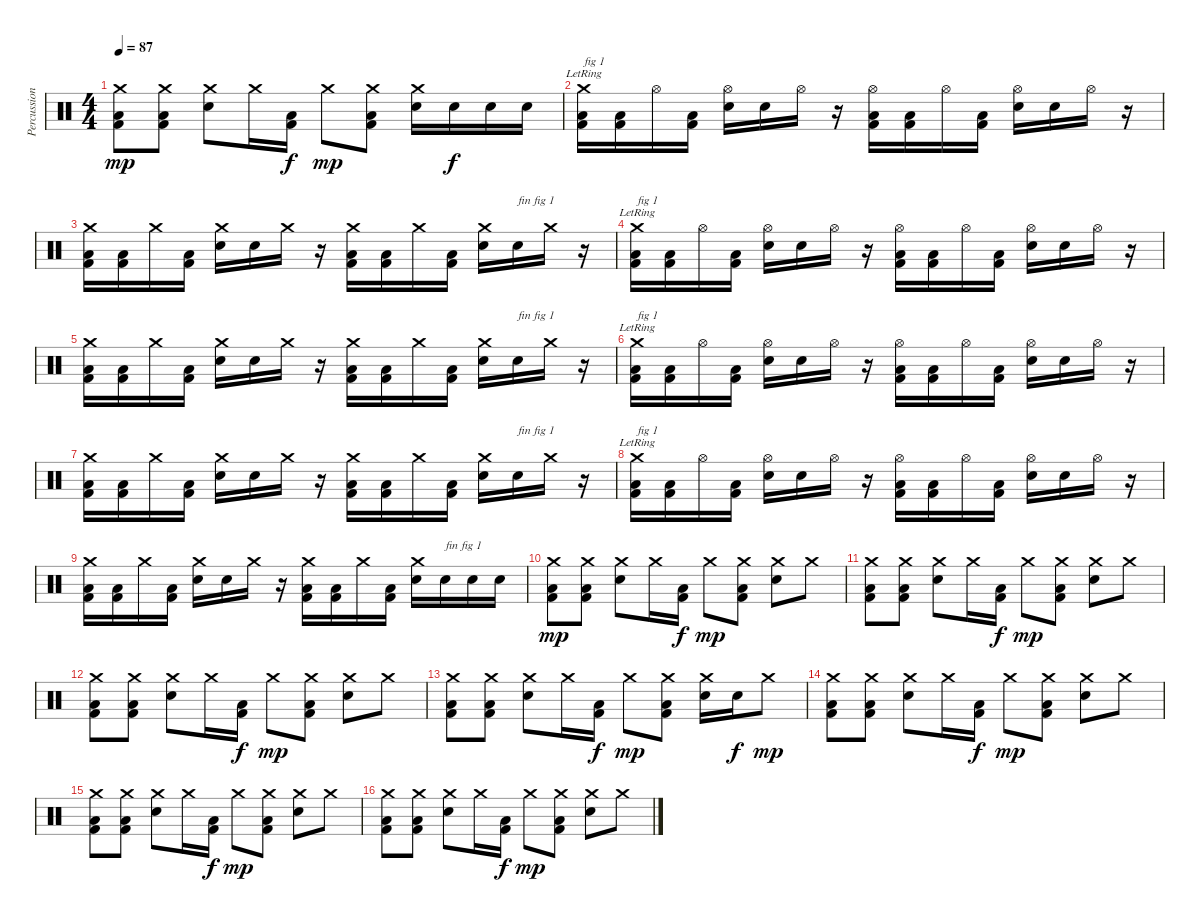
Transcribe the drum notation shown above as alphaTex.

\track ("Percussions" "Percussion") {instrument percussion}
\staff {score}
\articulation defaults
\ts (4 4)
\tempo 87
\clef neutral
\ks c
("Kick (hit) 2" "Low Floor Tom (hit)" "Crash medium (hit)").8{dy mp} ("Kick (hit) 2" "Low Floor Tom (hit)" "Crash medium (hit)").8 ("Electric Snare (hit)" "Crash medium (hit)").8 "Crash medium (hit)".16 ("Kick (hit) 2" "Low Floor Tom (hit)").16{dy f} "Crash medium (hit)".8{dy mp} ("Kick (hit) 2" "Low Floor Tom (hit)" "Crash medium (hit)").8 ("Electric Snare (hit)" "Crash medium (hit)").16 "Electric Snare (hit)".16{dy f} "Electric Snare (hit)".16 "Electric Snare (hit)".16 |
("Kick (hit) 2" "Low Floor Tom (hit)" "Crash medium (hit)"{lr}).16{txt "fig 1"} ("Kick (hit) 2" "Low Floor Tom (hit)").16 "Hi-Hat (open)".16 ("Kick (hit) 2" "Low Floor Tom (hit)").16 ("Electric Snare (hit)" "Hi-Hat (open)").16 "Electric Snare (hit)".16 "Hi-Hat (open)".16 r.16 ("Kick (hit) 2" "Low Floor Tom (hit)" "Hi-Hat (open)").16 ("Kick (hit) 2" "Low Floor Tom (hit)").16 "Hi-Hat (open)".16 ("Kick (hit) 2" "Low Floor Tom (hit)").16 ("Electric Snare (hit)" "Hi-Hat (open)").16 "Electric Snare (hit)".16 "Hi-Hat (open)".16 r.16 |
("Kick (hit) 2" "Low Floor Tom (hit)" "Crash medium (hit)").16 ("Kick (hit) 2" "Low Floor Tom (hit)").16 "Crash medium (hit)".16 ("Kick (hit) 2" "Low Floor Tom (hit)").16 ("Electric Snare (hit)" "Crash medium (hit)").16 "Electric Snare (hit)".16 "Crash medium (hit)".16 r.16 ("Kick (hit) 2" "Low Floor Tom (hit)" "Crash medium (hit)").16 ("Kick (hit) 2" "Low Floor Tom (hit)").16 "Crash medium (hit)".16 ("Kick (hit) 2" "Low Floor Tom (hit)").16 ("Electric Snare (hit)" "Crash medium (hit)").16 "Electric Snare (hit)".16{txt "fin fig 1"} "Crash medium (hit)".16 r.16 |
("Kick (hit) 2" "Low Floor Tom (hit)" "Crash medium (hit)"{lr}).16{txt "fig 1"} ("Kick (hit) 2" "Low Floor Tom (hit)").16 "Hi-Hat (open)".16 ("Kick (hit) 2" "Low Floor Tom (hit)").16 ("Electric Snare (hit)" "Hi-Hat (open)").16 "Electric Snare (hit)".16 "Hi-Hat (open)".16 r.16 ("Kick (hit) 2" "Low Floor Tom (hit)" "Hi-Hat (open)").16 ("Kick (hit) 2" "Low Floor Tom (hit)").16 "Hi-Hat (open)".16 ("Kick (hit) 2" "Low Floor Tom (hit)").16 ("Electric Snare (hit)" "Hi-Hat (open)").16 "Electric Snare (hit)".16 "Hi-Hat (open)".16 r.16 |
("Kick (hit) 2" "Low Floor Tom (hit)" "Crash medium (hit)").16 ("Kick (hit) 2" "Low Floor Tom (hit)").16 "Crash medium (hit)".16 ("Kick (hit) 2" "Low Floor Tom (hit)").16 ("Electric Snare (hit)" "Crash medium (hit)").16 "Electric Snare (hit)".16 "Crash medium (hit)".16 r.16 ("Kick (hit) 2" "Low Floor Tom (hit)" "Crash medium (hit)").16 ("Kick (hit) 2" "Low Floor Tom (hit)").16 "Crash medium (hit)".16 ("Kick (hit) 2" "Low Floor Tom (hit)").16 ("Electric Snare (hit)" "Crash medium (hit)").16 "Electric Snare (hit)".16{txt "fin fig 1"} "Crash medium (hit)".16 r.16 |
("Kick (hit) 2" "Low Floor Tom (hit)" "Crash medium (hit)"{lr}).16{txt "fig 1"} ("Kick (hit) 2" "Low Floor Tom (hit)").16 "Hi-Hat (open)".16 ("Kick (hit) 2" "Low Floor Tom (hit)").16 ("Electric Snare (hit)" "Hi-Hat (open)").16 "Electric Snare (hit)".16 "Hi-Hat (open)".16 r.16 ("Kick (hit) 2" "Low Floor Tom (hit)" "Hi-Hat (open)").16 ("Kick (hit) 2" "Low Floor Tom (hit)").16 "Hi-Hat (open)".16 ("Kick (hit) 2" "Low Floor Tom (hit)").16 ("Electric Snare (hit)" "Hi-Hat (open)").16 "Electric Snare (hit)".16 "Hi-Hat (open)".16 r.16 |
("Kick (hit) 2" "Low Floor Tom (hit)" "Crash medium (hit)").16 ("Kick (hit) 2" "Low Floor Tom (hit)").16 "Crash medium (hit)".16 ("Kick (hit) 2" "Low Floor Tom (hit)").16 ("Electric Snare (hit)" "Crash medium (hit)").16 "Electric Snare (hit)".16 "Crash medium (hit)".16 r.16 ("Kick (hit) 2" "Low Floor Tom (hit)" "Crash medium (hit)").16 ("Kick (hit) 2" "Low Floor Tom (hit)").16 "Crash medium (hit)".16 ("Kick (hit) 2" "Low Floor Tom (hit)").16 ("Electric Snare (hit)" "Crash medium (hit)").16 "Electric Snare (hit)".16{txt "fin fig 1"} "Crash medium (hit)".16 r.16 |
("Kick (hit) 2" "Low Floor Tom (hit)" "Crash medium (hit)"{lr}).16{txt "fig 1"} ("Kick (hit) 2" "Low Floor Tom (hit)").16 "Hi-Hat (open)".16 ("Kick (hit) 2" "Low Floor Tom (hit)").16 ("Electric Snare (hit)" "Hi-Hat (open)").16 "Electric Snare (hit)".16 "Hi-Hat (open)".16 r.16 ("Kick (hit) 2" "Low Floor Tom (hit)" "Hi-Hat (open)").16 ("Kick (hit) 2" "Low Floor Tom (hit)").16 "Hi-Hat (open)".16 ("Kick (hit) 2" "Low Floor Tom (hit)").16 ("Electric Snare (hit)" "Hi-Hat (open)").16 "Electric Snare (hit)".16 "Hi-Hat (open)".16 r.16 |
("Kick (hit) 2" "Low Floor Tom (hit)" "Crash medium (hit)").16 ("Kick (hit) 2" "Low Floor Tom (hit)").16 "Crash medium (hit)".16 ("Kick (hit) 2" "Low Floor Tom (hit)").16 ("Electric Snare (hit)" "Crash medium (hit)").16 "Electric Snare (hit)".16 "Crash medium (hit)".16 r.16 ("Kick (hit) 2" "Low Floor Tom (hit)" "Crash medium (hit)").16 ("Kick (hit) 2" "Low Floor Tom (hit)").16 "Crash medium (hit)".16 ("Kick (hit) 2" "Low Floor Tom (hit)").16 ("Electric Snare (hit)" "Crash medium (hit)").16 "Electric Snare (hit)".16{txt "fin fig 1"} "Electric Snare (hit)".16 "Electric Snare (hit)".16 |
("Kick (hit) 2" "Low Floor Tom (hit)" "Crash medium (hit)").8{dy mp} ("Kick (hit) 2" "Low Floor Tom (hit)" "Crash medium (hit)").8 ("Electric Snare (hit)" "Crash medium (hit)").8 "Crash medium (hit)".16 ("Kick (hit) 2" "Low Floor Tom (hit)").16{dy f} "Crash medium (hit)".8{dy mp} ("Kick (hit) 2" "Low Floor Tom (hit)" "Crash medium (hit)").8 ("Electric Snare (hit)" "Crash medium (hit)").8 "Crash medium (hit)".8 |
("Kick (hit) 2" "Low Floor Tom (hit)" "Crash medium (hit)").8 ("Kick (hit) 2" "Low Floor Tom (hit)" "Crash medium (hit)").8 ("Electric Snare (hit)" "Crash medium (hit)").8 "Crash medium (hit)".16 ("Kick (hit) 2" "Low Floor Tom (hit)").16{dy f} "Crash medium (hit)".8{dy mp} ("Kick (hit) 2" "Low Floor Tom (hit)" "Crash medium (hit)").8 ("Electric Snare (hit)" "Crash medium (hit)").8 "Crash medium (hit)".8 |
("Kick (hit) 2" "Low Floor Tom (hit)" "Crash medium (hit)").8 ("Kick (hit) 2" "Low Floor Tom (hit)" "Crash medium (hit)").8 ("Electric Snare (hit)" "Crash medium (hit)").8 "Crash medium (hit)".16 ("Kick (hit) 2" "Low Floor Tom (hit)").16{dy f} "Crash medium (hit)".8{dy mp} ("Kick (hit) 2" "Low Floor Tom (hit)" "Crash medium (hit)").8 ("Electric Snare (hit)" "Crash medium (hit)").8 "Crash medium (hit)".8 |
("Kick (hit) 2" "Low Floor Tom (hit)" "Crash medium (hit)").8 ("Kick (hit) 2" "Low Floor Tom (hit)" "Crash medium (hit)").8 ("Electric Snare (hit)" "Crash medium (hit)").8 "Crash medium (hit)".16 ("Kick (hit) 2" "Low Floor Tom (hit)").16{dy f} "Crash medium (hit)".8{dy mp} ("Kick (hit) 2" "Low Floor Tom (hit)" "Crash medium (hit)").8 ("Electric Snare (hit)" "Crash medium (hit)").16 "Electric Snare (hit)".16{dy f} "Crash medium (hit)".8{dy mp} |
("Kick (hit) 2" "Low Floor Tom (hit)" "Crash medium (hit)").8 ("Kick (hit) 2" "Low Floor Tom (hit)" "Crash medium (hit)").8 ("Electric Snare (hit)" "Crash medium (hit)").8 "Crash medium (hit)".16 ("Kick (hit) 2" "Low Floor Tom (hit)").16{dy f} "Crash medium (hit)".8{dy mp} ("Kick (hit) 2" "Low Floor Tom (hit)" "Crash medium (hit)").8 ("Electric Snare (hit)" "Crash medium (hit)").8 "Crash medium (hit)".8 |
("Kick (hit) 2" "Low Floor Tom (hit)" "Crash medium (hit)").8 ("Kick (hit) 2" "Low Floor Tom (hit)" "Crash medium (hit)").8 ("Electric Snare (hit)" "Crash medium (hit)").8 "Crash medium (hit)".16 ("Kick (hit) 2" "Low Floor Tom (hit)").16{dy f} "Crash medium (hit)".8{dy mp} ("Kick (hit) 2" "Low Floor Tom (hit)" "Crash medium (hit)").8 ("Electric Snare (hit)" "Crash medium (hit)").8 "Crash medium (hit)".8 |
("Kick (hit) 2" "Low Floor Tom (hit)" "Crash medium (hit)").8 ("Kick (hit) 2" "Low Floor Tom (hit)" "Crash medium (hit)").8 ("Electric Snare (hit)" "Crash medium (hit)").8 "Crash medium (hit)".16 ("Kick (hit) 2" "Low Floor Tom (hit)").16{dy f} "Crash medium (hit)".8{dy mp} ("Kick (hit) 2" "Low Floor Tom (hit)" "Crash medium (hit)").8 ("Electric Snare (hit)" "Crash medium (hit)").8 "Crash medium (hit)".8
